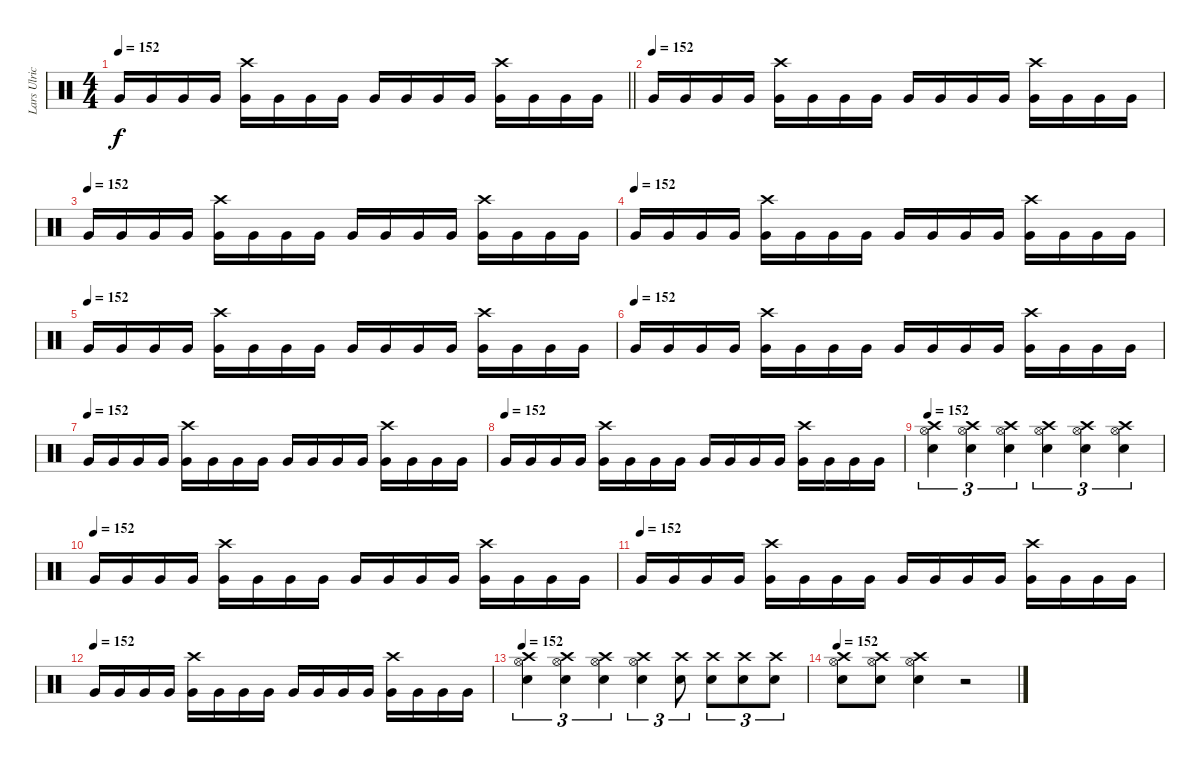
\track ("Lars Ulrich" "Lars Ulric") {instrument percussion}
\staff {score}
\articulation defaults
\ts (4 4)
\tempo 152
\clef neutral
\barLineRight lightlight
\ks c "Very Low Tom (hit)".16{dy f} "Very Low Tom (hit)".16 "Very Low Tom (hit)".16 "Very Low Tom (hit)".16
("Crash high (hit)" "Very Low Tom (hit)").16 "Very Low Tom (hit)".16 "Very Low Tom (hit)".16 "Very Low Tom (hit)".16 "Very Low Tom (hit)".16 "Very Low Tom (hit)".16 "Very Low Tom (hit)".16 "Very Low Tom (hit)".16 ("Crash high (hit)" "Very Low Tom (hit)").16 "Very Low Tom (hit)".16 "Very Low Tom (hit)".16 "Very Low Tom (hit)".16 |
\tempo (152)
"Very Low Tom (hit)".16{volume 16} "Very Low Tom (hit)".16 "Very Low Tom (hit)".16 "Very Low Tom (hit)".16 ("Crash high (hit)" "Very Low Tom (hit)").16 "Very Low Tom (hit)".16 "Very Low Tom (hit)".16 "Very Low Tom (hit)".16 "Very Low Tom (hit)".16 "Very Low Tom (hit)".16 "Very Low Tom (hit)".16 "Very Low Tom (hit)".16 ("Crash high (hit)" "Very Low Tom (hit)").16 "Very Low Tom (hit)".16 "Very Low Tom (hit)".16 "Very Low Tom (hit)".16 |
\tempo (152)
"Very Low Tom (hit)".16 "Very Low Tom (hit)".16 "Very Low Tom (hit)".16 "Very Low Tom (hit)".16 ("Crash high (hit)" "Very Low Tom (hit)").16 "Very Low Tom (hit)".16 "Very Low Tom (hit)".16 "Very Low Tom (hit)".16 "Very Low Tom (hit)".16 "Very Low Tom (hit)".16 "Very Low Tom (hit)".16 "Very Low Tom (hit)".16 ("Crash high (hit)" "Very Low Tom (hit)").16 "Very Low Tom (hit)".16 "Very Low Tom (hit)".16 "Very Low Tom (hit)".16 |
\tempo (152)
"Very Low Tom (hit)".16 "Very Low Tom (hit)".16 "Very Low Tom (hit)".16 "Very Low Tom (hit)".16 ("Crash high (hit)" "Very Low Tom (hit)").16 "Very Low Tom (hit)".16 "Very Low Tom (hit)".16 "Very Low Tom (hit)".16 "Very Low Tom (hit)".16 "Very Low Tom (hit)".16 "Very Low Tom (hit)".16 "Very Low Tom (hit)".16 ("Crash high (hit)" "Very Low Tom (hit)").16 "Very Low Tom (hit)".16 "Very Low Tom (hit)".16 "Very Low Tom (hit)".16 |
\tempo (152)
"Very Low Tom (hit)".16 "Very Low Tom (hit)".16 "Very Low Tom (hit)".16 "Very Low Tom (hit)".16 ("Crash high (hit)" "Very Low Tom (hit)").16 "Very Low Tom (hit)".16 "Very Low Tom (hit)".16 "Very Low Tom (hit)".16 "Very Low Tom (hit)".16 "Very Low Tom (hit)".16 "Very Low Tom (hit)".16 "Very Low Tom (hit)".16 ("Crash high (hit)" "Very Low Tom (hit)").16 "Very Low Tom (hit)".16 "Very Low Tom (hit)".16 "Very Low Tom (hit)".16 |
\tempo (152)
"Very Low Tom (hit)".16 "Very Low Tom (hit)".16 "Very Low Tom (hit)".16 "Very Low Tom (hit)".16 ("Crash high (hit)" "Very Low Tom (hit)").16 "Very Low Tom (hit)".16 "Very Low Tom (hit)".16 "Very Low Tom (hit)".16 "Very Low Tom (hit)".16 "Very Low Tom (hit)".16 "Very Low Tom (hit)".16 "Very Low Tom (hit)".16 ("Crash high (hit)" "Very Low Tom (hit)").16 "Very Low Tom (hit)".16 "Very Low Tom (hit)".16 "Very Low Tom (hit)".16 |
\tempo (152)
"Very Low Tom (hit)".16 "Very Low Tom (hit)".16 "Very Low Tom (hit)".16 "Very Low Tom (hit)".16 ("Crash high (hit)" "Very Low Tom (hit)").16 "Very Low Tom (hit)".16 "Very Low Tom (hit)".16 "Very Low Tom (hit)".16 "Very Low Tom (hit)".16 "Very Low Tom (hit)".16 "Very Low Tom (hit)".16 "Very Low Tom (hit)".16 ("Crash high (hit)" "Very Low Tom (hit)").16 "Very Low Tom (hit)".16 "Very Low Tom (hit)".16 "Very Low Tom (hit)".16 |
\tempo (152)
"Very Low Tom (hit)".16 "Very Low Tom (hit)".16 "Very Low Tom (hit)".16 "Very Low Tom (hit)".16 ("Crash high (hit)" "Very Low Tom (hit)").16 "Very Low Tom (hit)".16 "Very Low Tom (hit)".16 "Very Low Tom (hit)".16 "Very Low Tom (hit)".16 "Very Low Tom (hit)".16 "Very Low Tom (hit)".16 "Very Low Tom (hit)".16 ("Crash high (hit)" "Very Low Tom (hit)").16 "Very Low Tom (hit)".16 "Very Low Tom (hit)".16 "Very Low Tom (hit)".16 |
\tempo 152
("Hi-Hat (open)" "Crash high (hit)" "Snare (hit) 2").4{tu (3 2)} ("Hi-Hat (open)" "Crash high (hit)" "Snare (hit) 2").4{tu (3 2)} ("Hi-Hat (open)" "Crash high (hit)" "Snare (hit) 2").4{tu (3 2)} ("Hi-Hat (open)" "Crash high (hit)" "Snare (hit) 2").4{tu (3 2)} ("Hi-Hat (open)" "Crash high (hit)" "Snare (hit) 2").4{tu (3 2)} ("Hi-Hat (open)" "Crash high (hit)" "Snare (hit) 2").4{tu (3 2)} |
\tempo (152)
"Very Low Tom (hit)".16 "Very Low Tom (hit)".16 "Very Low Tom (hit)".16 "Very Low Tom (hit)".16 ("Crash high (hit)" "Very Low Tom (hit)").16 "Very Low Tom (hit)".16 "Very Low Tom (hit)".16 "Very Low Tom (hit)".16 "Very Low Tom (hit)".16 "Very Low Tom (hit)".16 "Very Low Tom (hit)".16 "Very Low Tom (hit)".16 ("Crash high (hit)" "Very Low Tom (hit)").16 "Very Low Tom (hit)".16 "Very Low Tom (hit)".16 "Very Low Tom (hit)".16 |
\tempo (152)
"Very Low Tom (hit)".16 "Very Low Tom (hit)".16 "Very Low Tom (hit)".16 "Very Low Tom (hit)".16 ("Crash high (hit)" "Very Low Tom (hit)").16 "Very Low Tom (hit)".16 "Very Low Tom (hit)".16 "Very Low Tom (hit)".16 "Very Low Tom (hit)".16 "Very Low Tom (hit)".16 "Very Low Tom (hit)".16 "Very Low Tom (hit)".16 ("Crash high (hit)" "Very Low Tom (hit)").16 "Very Low Tom (hit)".16 "Very Low Tom (hit)".16 "Very Low Tom (hit)".16 |
\tempo (152)
"Very Low Tom (hit)".16 "Very Low Tom (hit)".16 "Very Low Tom (hit)".16 "Very Low Tom (hit)".16 ("Crash high (hit)" "Very Low Tom (hit)").16 "Very Low Tom (hit)".16 "Very Low Tom (hit)".16 "Very Low Tom (hit)".16 "Very Low Tom (hit)".16 "Very Low Tom (hit)".16 "Very Low Tom (hit)".16 "Very Low Tom (hit)".16 ("Crash high (hit)" "Very Low Tom (hit)").16 "Very Low Tom (hit)".16 "Very Low Tom (hit)".16 "Very Low Tom (hit)".16 |
\tempo 152
("Hi-Hat (open)" "Crash high (hit)" "Snare (hit) 2").4{tu (3 2)} ("Hi-Hat (open)" "Crash high (hit)" "Snare (hit) 2").4{tu (3 2)} ("Hi-Hat (open)" "Crash high (hit)" "Snare (hit) 2").4{tu (3 2)} ("Hi-Hat (open)" "Crash high (hit)" "Snare (hit) 2").4{tu (3 2)} ("Crash high (hit)" "Snare (hit) 2").8{tu (3 2)} ("Crash high (hit)" "Snare (hit) 2").8{tu (3 2)} ("Crash high (hit)" "Snare (hit) 2").8{tu (3 2)} ("Crash high (hit)" "Snare (hit) 2").8{tu (3 2)} |
\tempo 152
("Crash high (hit)" "Hi-Hat (open)" "Snare (hit) 2").8 ("Crash high (hit)" "Hi-Hat (open)" "Snare (hit) 2").8 ("Crash high (hit)" "Hi-Hat (open)" "Snare (hit) 2").4 r.2
